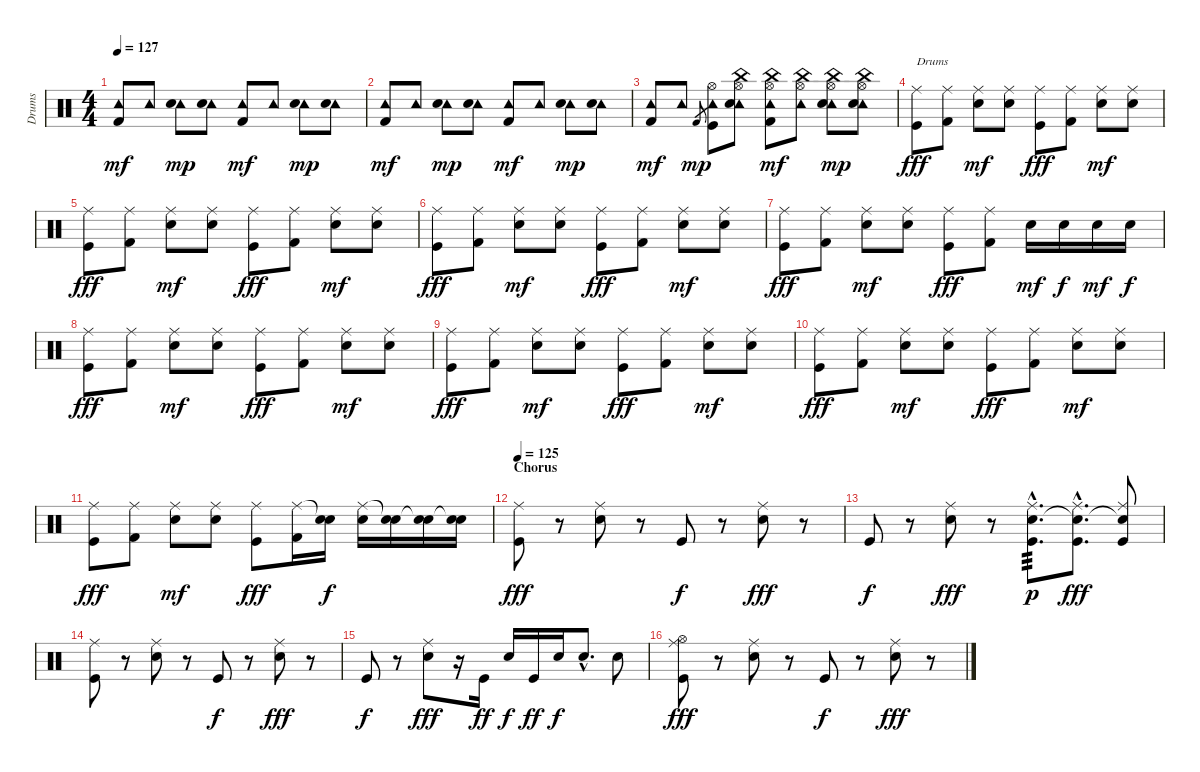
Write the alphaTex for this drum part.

\track ("Drums" "Drums") {instrument percussion}
\staff {score}
\articulation defaults
\ts (4 4)
\tempo 127
\clef neutral
\ks c
("Tambourine (hit)" "Kick (hit) 2").8{dy mf} "Tambourine (hit)".8 ("Tambourine (hit)" "Electric Snare (hit)").8{dy mp} ("Tambourine (hit)" "Electric Snare (hit)").8 ("Tambourine (hit)" "Kick (hit) 2").8{dy mf} "Tambourine (hit)".8 ("Tambourine (hit)" "Electric Snare (hit)").8{dy mp} ("Tambourine (hit)" "Electric Snare (hit)").8 |
("Tambourine (hit)" "Kick (hit) 2").8{dy mf} "Tambourine (hit)".8 ("Tambourine (hit)" "Electric Snare (hit)").8{dy mp} ("Tambourine (hit)" "Electric Snare (hit)").8 ("Tambourine (hit)" "Kick (hit) 2").8{dy mf} "Tambourine (hit)".8 ("Tambourine (hit)" "Electric Snare (hit)").8{dy mp} ("Tambourine (hit)" "Electric Snare (hit)").8 |
("Tambourine (hit)" "Kick (hit) 2").8{dy mf} "Tambourine (hit)".8 "Kick (hit) 2".8{gr dy mp} ("Hi-Hat (open)" "Tambourine (hit)" "Kick (hit)").8 ("Hi-Hat (open)" "Tambourine (hit)" "China (hit)" "Electric Snare (hit)").8 ("Hi-Hat (open)" "Tambourine (hit)" "China (hit)" "Kick (hit) 2").8{dy mf} ("Hi-Hat (open)" "Tambourine (hit)" "China (hit)").8 ("Hi-Hat (open)" "Tambourine (hit)" "China (hit)" "Electric Snare (hit)").8{dy mp} ("Hi-Hat (open)" "Tambourine (hit)" "China (hit)" "Electric Snare (hit)").8 |
("Ride (middle)" "Kick (hit)").8{txt "Drums" dy fff} ("Ride (middle)" "Kick (hit) 2").8 ("Ride (middle)" "Electric Snare (hit)").8{dy mf} ("Ride (middle)" "Electric Snare (hit)").8 ("Ride (middle)" "Kick (hit)").8{dy fff} ("Ride (middle)" "Kick (hit) 2").8 ("Ride (middle)" "Electric Snare (hit)").8{dy mf} ("Ride (middle)" "Electric Snare (hit)").8 |
("Ride (middle)" "Kick (hit)").8{dy fff} ("Ride (middle)" "Kick (hit) 2").8 ("Ride (middle)" "Electric Snare (hit)").8{dy mf} ("Ride (middle)" "Electric Snare (hit)").8 ("Ride (middle)" "Kick (hit)").8{dy fff} ("Ride (middle)" "Kick (hit) 2").8 ("Ride (middle)" "Electric Snare (hit)").8{dy mf} ("Ride (middle)" "Electric Snare (hit)").8 |
("Ride (middle)" "Kick (hit)").8{dy fff} ("Ride (middle)" "Kick (hit) 2").8 ("Ride (middle)" "Electric Snare (hit)").8{dy mf} ("Ride (middle)" "Electric Snare (hit)").8 ("Ride (middle)" "Kick (hit)").8{dy fff} ("Ride (middle)" "Kick (hit) 2").8 ("Ride (middle)" "Electric Snare (hit)").8{dy mf} ("Ride (middle)" "Electric Snare (hit)").8 |
("Ride (middle)" "Kick (hit)").8{dy fff} ("Ride (middle)" "Kick (hit) 2").8 ("Ride (middle)" "Electric Snare (hit)").8{dy mf} ("Ride (middle)" "Electric Snare (hit)").8 ("Ride (middle)" "Kick (hit)").8{dy fff} ("Ride (middle)" "Kick (hit) 2").8 "Electric Snare (hit)".16{dy mf} "Snare (hit) 2".16{dy f} "Electric Snare (hit)".16{dy mf} "Snare (hit) 2".16{dy f} |
("Ride (middle)" "Kick (hit)").8{dy fff} ("Ride (middle)" "Kick (hit) 2").8 ("Ride (middle)" "Electric Snare (hit)").8{dy mf} ("Ride (middle)" "Electric Snare (hit)").8 ("Ride (middle)" "Kick (hit)").8{dy fff} ("Ride (middle)" "Kick (hit) 2").8 ("Ride (middle)" "Electric Snare (hit)").8{dy mf} ("Ride (middle)" "Electric Snare (hit)").8 |
("Ride (middle)" "Kick (hit)").8{dy fff} ("Ride (middle)" "Kick (hit) 2").8 ("Ride (middle)" "Electric Snare (hit)").8{dy mf} ("Ride (middle)" "Electric Snare (hit)").8 ("Ride (middle)" "Kick (hit)").8{dy fff} ("Ride (middle)" "Kick (hit) 2").8 ("Ride (middle)" "Electric Snare (hit)").8{dy mf} ("Ride (middle)" "Electric Snare (hit)").8 |
("Ride (middle)" "Kick (hit)").8{dy fff} ("Ride (middle)" "Kick (hit) 2").8 ("Ride (middle)" "Electric Snare (hit)").8{dy mf} ("Ride (middle)" "Electric Snare (hit)").8 ("Ride (middle)" "Kick (hit)").8{dy fff} ("Ride (middle)" "Kick (hit) 2").8 ("Ride (middle)" "Electric Snare (hit)").8{dy mf} ("Ride (middle)" "Electric Snare (hit)").8 |
("Ride (middle)" "Kick (hit)").8{dy fff} ("Ride (middle)" "Kick (hit) 2").8 ("Ride (middle)" "Electric Snare (hit)").8{dy mf} ("Ride (middle)" "Electric Snare (hit)").8 ("Ride (middle)" "Kick (hit)").8{dy fff} ("Ride (middle)" "Kick (hit) 2").16 ("Snare (hit)"{t} "Snare (hit) 2").16{dy f} ("Ride (middle)" "Electric Snare (hit)").16 ("Snare (hit)"{t} "Snare (hit) 2").16 ("Snare (hit)"{t} "Electric Snare (hit)").16 ("Snare (hit)"{t} "Snare (hit) 2").16 |
\section ("" "Chorus")
\tempo 125
("Ride (middle)" "Kick (hit)").8{dy fff} r.8 ("Ride (middle)" "Snare (hit) 2").8 r.8 "Kick (hit)".8{dy f} r.8 ("Ride (middle)" "Snare (hit) 2").8{dy fff} r.8 |
"Kick (hit)".8{dy f} r.8 ("Ride (middle)" "Snare (hit) 2").8{dy fff} r.8 ("Ride (middle)"{hac} "Kick (hit)"{hac} "Electric Snare (hit)"{hac}).8{d tp 3 dy p} ("Ride (middle)"{hac} "Kick (hit)"{hac} "Snare (hit)"{hac t}).8{d dy fff} ("Ride (middle)" "Kick (hit)" "Snare (hit)"{t}).8 |
("Ride (middle)" "Kick (hit)").8 r.8 ("Ride (middle)" "Snare (hit) 2").8 r.8 "Kick (hit)".8{dy f} r.8 ("Ride (middle)" "Snare (hit) 2").8{dy fff} r.8 |
"Kick (hit)".8{dy f} r.8 ("Ride (middle)" "Snare (hit) 2").8{dy fff} r.16 "Kick (hit)".16{dy ff} "Electric Snare (hit)".16{dy f} "Kick (hit)".16{dy ff} "Electric Snare (hit)".16{dy f} "Snare (hit) 2"{hac}.8{d} "Snare (hit) 2".8 |
("Hi-Hat (open)" "Ride (middle)" "Kick (hit)").8{dy fff} r.8 ("Ride (middle)" "Snare (hit) 2").8 r.8 "Kick (hit)".8{dy f} r.8 ("Ride (middle)" "Snare (hit) 2").8{dy fff} r.8
